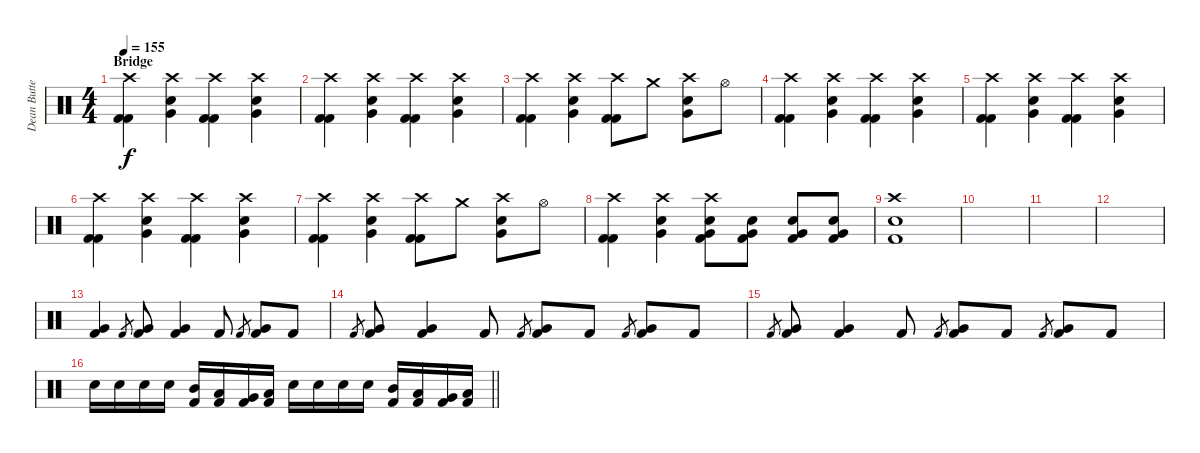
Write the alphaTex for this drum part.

\track ("Dean Butterworth [Drums]" "Dean Butte") {solo instrument percussion}
\staff {score}
\articulation defaults
\ts (4 4)
\section ("" "Bridge")
\tempo 155
\clef neutral
\ks c
("Crash high (hit)" "Kick (hit) 2" "Kick (hit) 2").4{dy f} ("Crash high (hit)" "Very Low Tom (hit)" "Electric Snare (hit)").4 ("Crash high (hit)" "Kick (hit) 2" "Kick (hit) 2").4 ("Crash high (hit)" "Very Low Tom (hit)" "Electric Snare (hit)").4 |
("Crash high (hit)" "Kick (hit) 2" "Kick (hit) 2").4 ("Crash high (hit)" "Very Low Tom (hit)" "Electric Snare (hit)").4 ("Crash high (hit)" "Kick (hit) 2" "Kick (hit) 2").4 ("Crash high (hit)" "Very Low Tom (hit)" "Electric Snare (hit)").4 |
("Crash high (hit)" "Kick (hit) 2" "Kick (hit) 2").4 ("Crash high (hit)" "Very Low Tom (hit)" "Electric Snare (hit)").4 ("Crash high (hit)" "Kick (hit) 2" "Kick (hit) 2").8 "Crash medium (hit)".8 ("Crash high (hit)" "Very Low Tom (hit)" "Electric Snare (hit)").8 "Hi-Hat (open)".8 |
("Crash high (hit)" "Kick (hit) 2" "Kick (hit) 2").4 ("Crash high (hit)" "Very Low Tom (hit)" "Electric Snare (hit)").4 ("Crash high (hit)" "Kick (hit) 2" "Kick (hit) 2").4 ("Crash high (hit)" "Very Low Tom (hit)" "Electric Snare (hit)").4 |
("Crash high (hit)" "Kick (hit) 2" "Kick (hit) 2").4 ("Crash high (hit)" "Very Low Tom (hit)" "Electric Snare (hit)").4 ("Crash high (hit)" "Kick (hit) 2" "Kick (hit) 2").4 ("Crash high (hit)" "Very Low Tom (hit)" "Electric Snare (hit)").4 |
("Crash high (hit)" "Kick (hit) 2" "Kick (hit) 2").4 ("Crash high (hit)" "Very Low Tom (hit)" "Electric Snare (hit)").4 ("Crash high (hit)" "Kick (hit) 2" "Kick (hit) 2").4 ("Crash high (hit)" "Very Low Tom (hit)" "Electric Snare (hit)").4 |
("Crash high (hit)" "Kick (hit) 2" "Kick (hit) 2").4 ("Crash high (hit)" "Very Low Tom (hit)" "Electric Snare (hit)").4 ("Crash high (hit)" "Kick (hit) 2" "Kick (hit) 2").8 "Crash medium (hit)".8 ("Crash high (hit)" "Very Low Tom (hit)" "Electric Snare (hit)").8 "Hi-Hat (open)".8 |
("Crash high (hit)" "Kick (hit) 2" "Kick (hit) 2").4 ("Crash high (hit)" "Very Low Tom (hit)" "Electric Snare (hit)").4 ("Crash high (hit)" "Very Low Tom (hit)" "Electric Snare (hit)" "Kick (hit) 2").8 ("Very Low Tom (hit)" "Electric Snare (hit)" "Kick (hit) 2").8 ("Very Low Tom (hit)" "Electric Snare (hit)" "Kick (hit) 2").8 ("Very Low Tom (hit)" "Electric Snare (hit)" "Kick (hit) 2").8 |
("Crash high (hit)" "Electric Snare (hit)" "Kick (hit) 2").1 |
|
|
|
("Very Low Tom (hit)" "Kick (hit) 2").4 "Kick (hit) 2".8{gr} ("Very Low Tom (hit)" "Kick (hit) 2").8 ("Very Low Tom (hit)" "Kick (hit) 2").4 "Kick (hit) 2".8 "Kick (hit) 2".8{gr} ("Very Low Tom (hit)" "Kick (hit) 2").8 "Kick (hit) 2".8 |
"Kick (hit) 2".8{gr} ("Very Low Tom (hit)" "Kick (hit) 2").8 ("Very Low Tom (hit)" "Kick (hit) 2").4 "Kick (hit) 2".8 "Kick (hit) 2".8{gr} ("Very Low Tom (hit)" "Kick (hit) 2").8 "Kick (hit) 2".8 "Kick (hit) 2".8{gr} ("Very Low Tom (hit)" "Kick (hit) 2").8 "Kick (hit) 2".8 |
"Kick (hit) 2".8{gr} ("Very Low Tom (hit)" "Kick (hit) 2").8 ("Very Low Tom (hit)" "Kick (hit) 2").4 "Kick (hit) 2".8 "Kick (hit) 2".8{gr} ("Very Low Tom (hit)" "Kick (hit) 2").8 "Kick (hit) 2".8 "Kick (hit) 2".8{gr} ("Very Low Tom (hit)" "Kick (hit) 2").8 "Kick (hit) 2".8 |
\barLineRight lightlight "Electric Snare (hit)".16 "Electric Snare (hit)".16 "Electric Snare (hit)".16 "Electric Snare (hit)".16
("Mid Tom (hit)" "Kick (hit) 2").16 ("Low Tom (hit)" "Kick (hit) 2").16 ("Very Low Tom (hit)" "Kick (hit) 2").16 ("Low Floor Tom (hit)" "Kick (hit) 2").16 "Electric Snare (hit)".16 "Electric Snare (hit)".16 "Electric Snare (hit)".16 "Electric Snare (hit)".16 ("Mid Tom (hit)" "Kick (hit) 2").16 ("Low Tom (hit)" "Kick (hit) 2").16 ("Very Low Tom (hit)" "Kick (hit) 2").16 ("Low Floor Tom (hit)" "Kick (hit) 2").16
